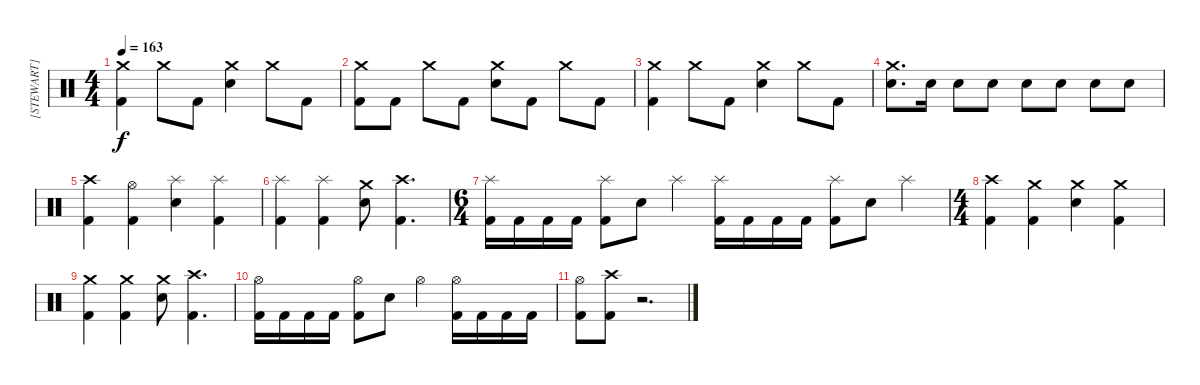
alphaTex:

\track ("[STEWART]" "[STEWART]") {instrument percussion}
\staff {score}
\articulation defaults
\ts (4 4)
\tempo 163
\clef neutral
\ks c
("Crash medium (hit)" "Kick (hit) 2").4{dy f} "Crash medium (hit)".8 "Kick (hit) 2".8 ("Crash medium (hit)" "Electric Snare (hit)").4 "Crash medium (hit)".8 "Kick (hit) 2".8 |
("Crash medium (hit)" "Kick (hit) 2").8 "Kick (hit) 2".8 "Crash medium (hit)".8 "Kick (hit) 2".8 ("Crash medium (hit)" "Electric Snare (hit)").8 "Kick (hit) 2".8 "Crash medium (hit)".8 "Kick (hit) 2".8 |
("Crash medium (hit)" "Kick (hit) 2").4 "Crash medium (hit)".8 "Kick (hit) 2".8 ("Crash medium (hit)" "Electric Snare (hit)").4 "Crash medium (hit)".8 "Kick (hit) 2".8 |
("Crash medium (hit)" "Electric Snare (hit)").8{d} "Electric Snare (hit)".16 "Electric Snare (hit)".8 "Electric Snare (hit)".8 "Electric Snare (hit)".8 "Electric Snare (hit)".8 "Electric Snare (hit)".8 "Electric Snare (hit)".8 |
("Crash high (hit)" "Kick (hit) 2").4 ("Hi-Hat (open)" "Kick (hit) 2").4 ("Splash (hit)" "Electric Snare (hit)").4 ("Splash (hit)" "Kick (hit) 2").4 |
("Splash (hit)" "Kick (hit) 2").4 ("Splash (hit)" "Kick (hit) 2").4 ("Crash medium (hit)" "Electric Snare (hit)").8 ("Crash high (hit)" "Kick (hit) 2").4{d} |
\ts (6 4)
("Splash (hit)" "Kick (hit) 2").16 "Kick (hit) 2".16 "Kick (hit) 2".16 "Kick (hit) 2".16 ("Splash (hit)" "Kick (hit) 2").8 "Electric Snare (hit)".8 "Splash (hit)".4 ("Splash (hit)" "Kick (hit) 2").16 "Kick (hit) 2".16 "Kick (hit) 2".16 "Kick (hit) 2".16 ("Splash (hit)" "Kick (hit) 2").8 "Electric Snare (hit)".8 "Splash (hit)".4 |
\ts (4 4)
("Crash high (hit)" "Kick (hit) 2").4 ("Crash medium (hit)" "Kick (hit) 2").4 ("Crash medium (hit)" "Electric Snare (hit)").4 ("Crash medium (hit)" "Kick (hit) 2").4 |
("Crash medium (hit)" "Kick (hit) 2").4 ("Crash medium (hit)" "Kick (hit) 2").4 ("Crash medium (hit)" "Electric Snare (hit)").8 ("Crash high (hit)" "Kick (hit) 2").4{d} |
("Hi-Hat (open)" "Kick (hit) 2").16 "Kick (hit) 2".16 "Kick (hit) 2".16 "Kick (hit) 2".16 ("Hi-Hat (open)" "Kick (hit) 2").8 "Electric Snare (hit)".8 "Hi-Hat (open)".4 ("Hi-Hat (open)" "Kick (hit) 2").16 "Kick (hit) 2".16 "Kick (hit) 2".16 "Kick (hit) 2".16 |
("Hi-Hat (open)" "Kick (hit) 2").8 ("Crash high (hit)" "Kick (hit) 2").8 r.2{d}
